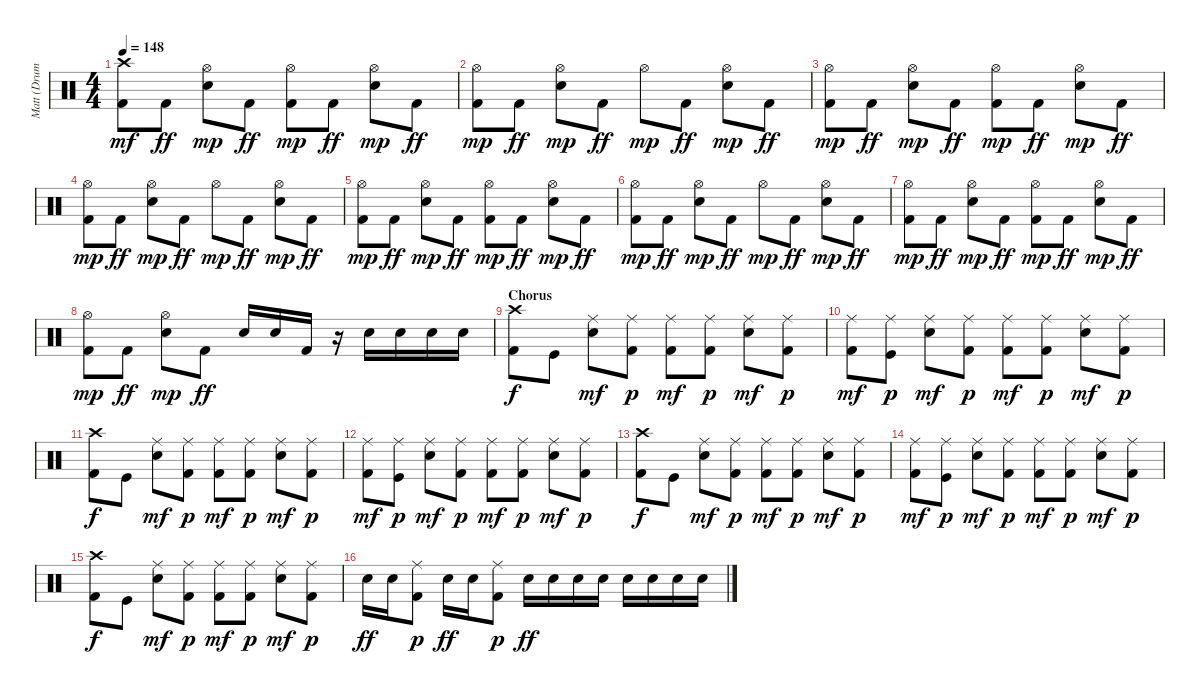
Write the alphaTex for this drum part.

\track ("Matt (Drums)" "Matt (Drum") {instrument percussion}
\staff {score}
\articulation defaults
\ts (4 4)
\tempo 148
\clef neutral
\ks c
("Kick (hit) 2" "Crash high (hit)").8{dy mf} "Kick (hit) 2".8{dy ff} ("Electric Snare (hit)" "Hi-Hat (open)").8{dy mp} "Kick (hit) 2".8{dy ff} ("Kick (hit) 2" "Hi-Hat (open)").8{dy mp} "Kick (hit) 2".8{dy ff} ("Electric Snare (hit)" "Hi-Hat (open)").8{dy mp} "Kick (hit) 2".8{dy ff} |
("Kick (hit) 2" "Hi-Hat (open)").8{dy mp} "Kick (hit) 2".8{dy ff} ("Electric Snare (hit)" "Hi-Hat (open)").8{dy mp} "Kick (hit) 2".8{dy ff} "Hi-Hat (open)".8{dy mp} "Kick (hit) 2".8{dy ff} ("Electric Snare (hit)" "Hi-Hat (open)").8{dy mp} "Kick (hit) 2".8{dy ff} |
("Kick (hit) 2" "Hi-Hat (open)").8{dy mp} "Kick (hit) 2".8{dy ff} ("Electric Snare (hit)" "Hi-Hat (open)").8{dy mp} "Kick (hit) 2".8{dy ff} ("Kick (hit) 2" "Hi-Hat (open)").8{dy mp} "Kick (hit) 2".8{dy ff} ("Electric Snare (hit)" "Hi-Hat (open)").8{dy mp} "Kick (hit) 2".8{dy ff} |
("Kick (hit) 2" "Hi-Hat (open)").8{dy mp} "Kick (hit) 2".8{dy ff} ("Electric Snare (hit)" "Hi-Hat (open)").8{dy mp} "Kick (hit) 2".8{dy ff} "Hi-Hat (open)".8{dy mp} "Kick (hit) 2".8{dy ff} ("Electric Snare (hit)" "Hi-Hat (open)").8{dy mp} "Kick (hit) 2".8{dy ff} |
("Kick (hit) 2" "Hi-Hat (open)").8{dy mp} "Kick (hit) 2".8{dy ff} ("Electric Snare (hit)" "Hi-Hat (open)").8{dy mp} "Kick (hit) 2".8{dy ff} ("Kick (hit) 2" "Hi-Hat (open)").8{dy mp} "Kick (hit) 2".8{dy ff} ("Electric Snare (hit)" "Hi-Hat (open)").8{dy mp} "Kick (hit) 2".8{dy ff} |
("Kick (hit) 2" "Hi-Hat (open)").8{dy mp} "Kick (hit) 2".8{dy ff} ("Electric Snare (hit)" "Hi-Hat (open)").8{dy mp} "Kick (hit) 2".8{dy ff} "Hi-Hat (open)".8{dy mp} "Kick (hit) 2".8{dy ff} ("Electric Snare (hit)" "Hi-Hat (open)").8{dy mp} "Kick (hit) 2".8{dy ff} |
("Kick (hit) 2" "Hi-Hat (open)").8{dy mp} "Kick (hit) 2".8{dy ff} ("Electric Snare (hit)" "Hi-Hat (open)").8{dy mp} "Kick (hit) 2".8{dy ff} ("Kick (hit) 2" "Hi-Hat (open)").8{dy mp} "Kick (hit) 2".8{dy ff} ("Electric Snare (hit)" "Hi-Hat (open)").8{dy mp} "Kick (hit) 2".8{dy ff} |
("Kick (hit) 2" "Hi-Hat (open)").8{dy mp} "Kick (hit) 2".8{dy ff} ("Electric Snare (hit)" "Hi-Hat (open)").8{dy mp} "Kick (hit) 2".8{dy ff} "Electric Snare (hit)".16 "Electric Snare (hit)".16 "Kick (hit) 2".16 r.16 "Electric Snare (hit)".16 "Electric Snare (hit)".16 "Electric Snare (hit)".16 "Electric Snare (hit)".16 |
\section ("" "Chorus")
("Kick (hit) 2" "Crash high (hit)").8{dy f} "Kick (hit)".8 ("Electric Snare (hit)" "Ride (middle)").8{dy mf} ("Kick (hit) 2" "Ride (middle)").8{dy p} ("Kick (hit) 2" "Ride (middle)").8{dy mf} ("Kick (hit) 2" "Ride (middle)").8{dy p} ("Electric Snare (hit)" "Ride (middle)").8{dy mf} ("Kick (hit) 2" "Ride (middle)").8{dy p} |
("Kick (hit) 2" "Ride (middle)").8{dy mf} ("Kick (hit)" "Ride (middle)").8{dy p} ("Electric Snare (hit)" "Ride (middle)").8{dy mf} ("Kick (hit) 2" "Ride (middle)").8{dy p} ("Kick (hit) 2" "Ride (middle)").8{dy mf} ("Kick (hit) 2" "Ride (middle)").8{dy p} ("Electric Snare (hit)" "Ride (middle)").8{dy mf} ("Kick (hit) 2" "Ride (middle)").8{dy p} |
("Kick (hit) 2" "Crash high (hit)").8{dy f} "Kick (hit)".8 ("Electric Snare (hit)" "Ride (middle)").8{dy mf} ("Kick (hit) 2" "Ride (middle)").8{dy p} ("Kick (hit) 2" "Ride (middle)").8{dy mf} ("Kick (hit) 2" "Ride (middle)").8{dy p} ("Electric Snare (hit)" "Ride (middle)").8{dy mf} ("Kick (hit) 2" "Ride (middle)").8{dy p} |
("Kick (hit) 2" "Ride (middle)").8{dy mf} ("Kick (hit)" "Ride (middle)").8{dy p} ("Electric Snare (hit)" "Ride (middle)").8{dy mf} ("Kick (hit) 2" "Ride (middle)").8{dy p} ("Kick (hit) 2" "Ride (middle)").8{dy mf} ("Kick (hit) 2" "Ride (middle)").8{dy p} ("Electric Snare (hit)" "Ride (middle)").8{dy mf} ("Kick (hit) 2" "Ride (middle)").8{dy p} |
("Kick (hit) 2" "Crash high (hit)").8{dy f} "Kick (hit)".8 ("Electric Snare (hit)" "Ride (middle)").8{dy mf} ("Kick (hit) 2" "Ride (middle)").8{dy p} ("Kick (hit) 2" "Ride (middle)").8{dy mf} ("Kick (hit) 2" "Ride (middle)").8{dy p} ("Electric Snare (hit)" "Ride (middle)").8{dy mf} ("Kick (hit) 2" "Ride (middle)").8{dy p} |
("Kick (hit) 2" "Ride (middle)").8{dy mf} ("Kick (hit)" "Ride (middle)").8{dy p} ("Electric Snare (hit)" "Ride (middle)").8{dy mf} ("Kick (hit) 2" "Ride (middle)").8{dy p} ("Kick (hit) 2" "Ride (middle)").8{dy mf} ("Kick (hit) 2" "Ride (middle)").8{dy p} ("Electric Snare (hit)" "Ride (middle)").8{dy mf} ("Kick (hit) 2" "Ride (middle)").8{dy p} |
("Kick (hit) 2" "Crash high (hit)").8{dy f} "Kick (hit)".8 ("Electric Snare (hit)" "Ride (middle)").8{dy mf} ("Kick (hit) 2" "Ride (middle)").8{dy p} ("Kick (hit) 2" "Ride (middle)").8{dy mf} ("Kick (hit) 2" "Ride (middle)").8{dy p} ("Electric Snare (hit)" "Ride (middle)").8{dy mf} ("Kick (hit) 2" "Ride (middle)").8{dy p} |
"Electric Snare (hit)".16{dy ff} "Electric Snare (hit)".16 ("Kick (hit) 2" "Ride (middle)").8{dy p} "Electric Snare (hit)".16{dy ff} "Electric Snare (hit)".16 ("Kick (hit) 2" "Ride (middle)").8{dy p} "Electric Snare (hit)".16{dy ff} "Electric Snare (hit)".16 "Electric Snare (hit)".16 "Electric Snare (hit)".16 "Electric Snare (hit)".16 "Electric Snare (hit)".16 "Electric Snare (hit)".16 "Electric Snare (hit)".16
